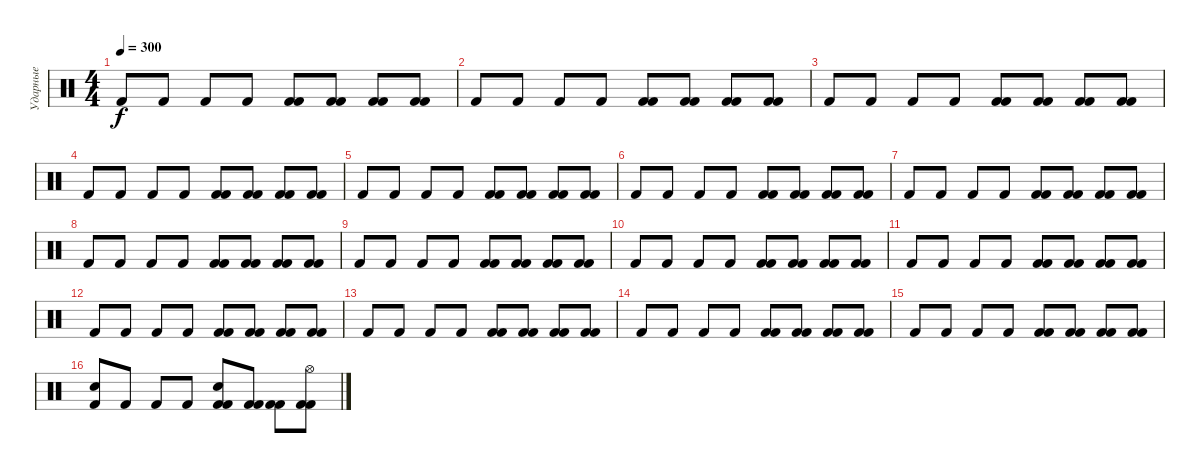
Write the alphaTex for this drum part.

\track ("Ударные" "Ударные") {instrument percussion}
\staff {score}
\articulation defaults
\ts (4 4)
\tempo 300
\clef neutral
\ks c "Kick (hit) 2".8{dy f} "Kick (hit) 2".8 "Kick (hit) 2".8 "Kick (hit) 2".8
("Kick (hit) 2" "Kick (hit) 2").8 ("Kick (hit) 2" "Kick (hit) 2").8 ("Kick (hit) 2" "Kick (hit) 2").8 ("Kick (hit) 2" "Kick (hit) 2").8 |
"Kick (hit) 2".8 "Kick (hit) 2".8 "Kick (hit) 2".8 "Kick (hit) 2".8 ("Kick (hit) 2" "Kick (hit) 2").8 ("Kick (hit) 2" "Kick (hit) 2").8 ("Kick (hit) 2" "Kick (hit) 2").8 ("Kick (hit) 2" "Kick (hit) 2").8 |
"Kick (hit) 2".8 "Kick (hit) 2".8 "Kick (hit) 2".8 "Kick (hit) 2".8 ("Kick (hit) 2" "Kick (hit) 2").8 ("Kick (hit) 2" "Kick (hit) 2").8 ("Kick (hit) 2" "Kick (hit) 2").8 ("Kick (hit) 2" "Kick (hit) 2").8 |
"Kick (hit) 2".8 "Kick (hit) 2".8 "Kick (hit) 2".8 "Kick (hit) 2".8 ("Kick (hit) 2" "Kick (hit) 2").8 ("Kick (hit) 2" "Kick (hit) 2").8 ("Kick (hit) 2" "Kick (hit) 2").8 ("Kick (hit) 2" "Kick (hit) 2").8 |
"Kick (hit) 2".8 "Kick (hit) 2".8 "Kick (hit) 2".8 "Kick (hit) 2".8 ("Kick (hit) 2" "Kick (hit) 2").8 ("Kick (hit) 2" "Kick (hit) 2").8 ("Kick (hit) 2" "Kick (hit) 2").8 ("Kick (hit) 2" "Kick (hit) 2").8 |
"Kick (hit) 2".8 "Kick (hit) 2".8 "Kick (hit) 2".8 "Kick (hit) 2".8 ("Kick (hit) 2" "Kick (hit) 2").8 ("Kick (hit) 2" "Kick (hit) 2").8 ("Kick (hit) 2" "Kick (hit) 2").8 ("Kick (hit) 2" "Kick (hit) 2").8 |
"Kick (hit) 2".8 "Kick (hit) 2".8 "Kick (hit) 2".8 "Kick (hit) 2".8 ("Kick (hit) 2" "Kick (hit) 2").8 ("Kick (hit) 2" "Kick (hit) 2").8 ("Kick (hit) 2" "Kick (hit) 2").8 ("Kick (hit) 2" "Kick (hit) 2").8 |
"Kick (hit) 2".8 "Kick (hit) 2".8 "Kick (hit) 2".8 "Kick (hit) 2".8 ("Kick (hit) 2" "Kick (hit) 2").8 ("Kick (hit) 2" "Kick (hit) 2").8 ("Kick (hit) 2" "Kick (hit) 2").8 ("Kick (hit) 2" "Kick (hit) 2").8 |
"Kick (hit) 2".8 "Kick (hit) 2".8 "Kick (hit) 2".8 "Kick (hit) 2".8 ("Kick (hit) 2" "Kick (hit) 2").8 ("Kick (hit) 2" "Kick (hit) 2").8 ("Kick (hit) 2" "Kick (hit) 2").8 ("Kick (hit) 2" "Kick (hit) 2").8 |
"Kick (hit) 2".8 "Kick (hit) 2".8 "Kick (hit) 2".8 "Kick (hit) 2".8 ("Kick (hit) 2" "Kick (hit) 2").8 ("Kick (hit) 2" "Kick (hit) 2").8 ("Kick (hit) 2" "Kick (hit) 2").8 ("Kick (hit) 2" "Kick (hit) 2").8 |
"Kick (hit) 2".8 "Kick (hit) 2".8 "Kick (hit) 2".8 "Kick (hit) 2".8 ("Kick (hit) 2" "Kick (hit) 2").8 ("Kick (hit) 2" "Kick (hit) 2").8 ("Kick (hit) 2" "Kick (hit) 2").8 ("Kick (hit) 2" "Kick (hit) 2").8 |
"Kick (hit) 2".8 "Kick (hit) 2".8 "Kick (hit) 2".8 "Kick (hit) 2".8 ("Kick (hit) 2" "Kick (hit) 2").8 ("Kick (hit) 2" "Kick (hit) 2").8 ("Kick (hit) 2" "Kick (hit) 2").8 ("Kick (hit) 2" "Kick (hit) 2").8 |
"Kick (hit) 2".8 "Kick (hit) 2".8 "Kick (hit) 2".8 "Kick (hit) 2".8 ("Kick (hit) 2" "Kick (hit) 2").8 ("Kick (hit) 2" "Kick (hit) 2").8 ("Kick (hit) 2" "Kick (hit) 2").8 ("Kick (hit) 2" "Kick (hit) 2").8 |
"Kick (hit) 2".8 "Kick (hit) 2".8 "Kick (hit) 2".8 "Kick (hit) 2".8 ("Kick (hit) 2" "Kick (hit) 2").8 ("Kick (hit) 2" "Kick (hit) 2").8 ("Kick (hit) 2" "Kick (hit) 2").8 ("Kick (hit) 2" "Kick (hit) 2").8 |
"Kick (hit) 2".8 "Kick (hit) 2".8 "Kick (hit) 2".8 "Kick (hit) 2".8 ("Kick (hit) 2" "Kick (hit) 2").8 ("Kick (hit) 2" "Kick (hit) 2").8 ("Kick (hit) 2" "Kick (hit) 2").8 ("Kick (hit) 2" "Kick (hit) 2").8 |
("Kick (hit) 2" "Electric Snare (hit)").8 "Kick (hit) 2".8 "Kick (hit) 2".8 "Kick (hit) 2".8 ("Kick (hit) 2" "Kick (hit) 2" "Electric Snare (hit)").8 ("Kick (hit) 2" "Kick (hit) 2").8 ("Kick (hit) 2" "Kick (hit) 2").8 ("Kick (hit) 2" "Kick (hit) 2" "Hi-Hat (open)").8
